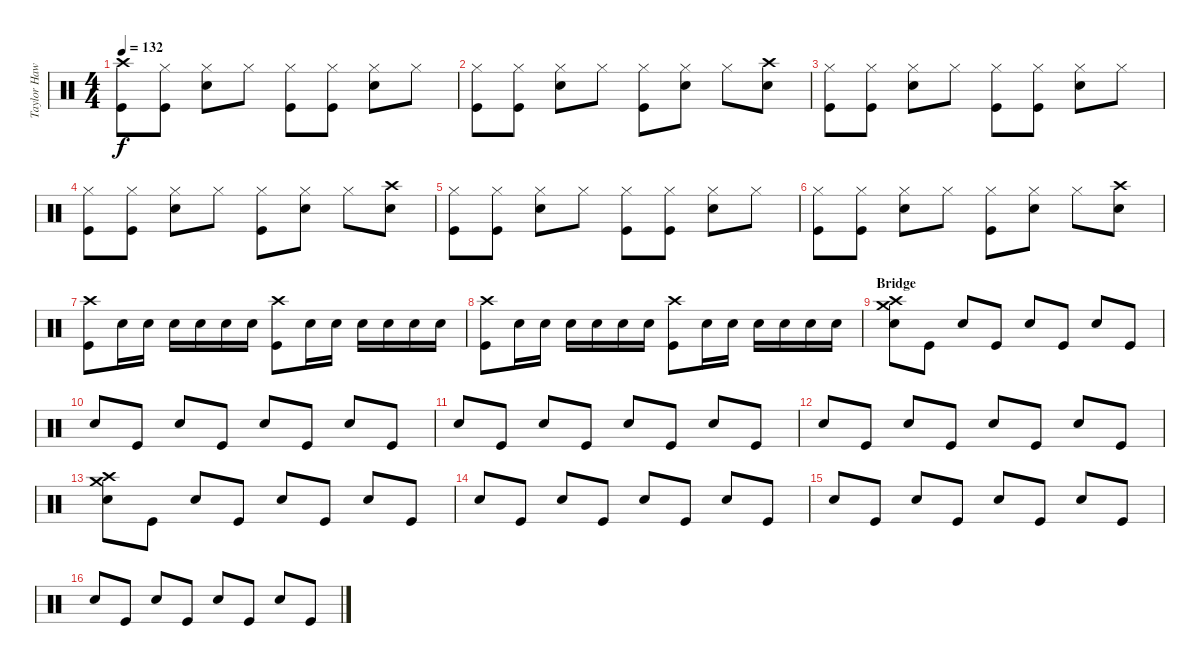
\track ("Taylor Hawkins (Drums)" "Taylor Haw") {instrument percussion}
\staff {score}
\articulation defaults
\ts (4 4)
\tempo 132
\clef neutral
\ks c
("Crash high (hit)" "Kick (hit)").8{dy f} ("Hi-Hat (closed)" "Kick (hit)").8 ("Hi-Hat (closed)" "Snare (hit) 2").8 "Hi-Hat (closed)".8 ("Hi-Hat (closed)" "Kick (hit)").8 ("Hi-Hat (closed)" "Kick (hit)").8 ("Hi-Hat (closed)" "Snare (hit) 2").8 "Hi-Hat (closed)".8 |
("Hi-Hat (closed)" "Kick (hit)").8 ("Hi-Hat (closed)" "Kick (hit)").8 ("Hi-Hat (closed)" "Snare (hit) 2").8 "Hi-Hat (closed)".8 ("Hi-Hat (closed)" "Kick (hit)").8 ("Hi-Hat (closed)" "Snare (hit) 2").8 "Hi-Hat (closed)".8 ("Crash high (hit)" "Snare (hit) 2").8 |
("Kick (hit)" "Hi-Hat (closed)").8 ("Hi-Hat (closed)" "Kick (hit)").8 ("Hi-Hat (closed)" "Snare (hit) 2").8 "Hi-Hat (closed)".8 ("Hi-Hat (closed)" "Kick (hit)").8 ("Hi-Hat (closed)" "Kick (hit)").8 ("Hi-Hat (closed)" "Snare (hit) 2").8 "Hi-Hat (closed)".8 |
("Hi-Hat (closed)" "Kick (hit)").8 ("Hi-Hat (closed)" "Kick (hit)").8 ("Hi-Hat (closed)" "Snare (hit) 2").8 "Hi-Hat (closed)".8 ("Hi-Hat (closed)" "Kick (hit)").8 ("Hi-Hat (closed)" "Snare (hit) 2").8 "Hi-Hat (closed)".8 ("Crash high (hit)" "Snare (hit) 2").8 |
("Kick (hit)" "Hi-Hat (closed)").8 ("Hi-Hat (closed)" "Kick (hit)").8 ("Hi-Hat (closed)" "Snare (hit) 2").8 "Hi-Hat (closed)".8 ("Hi-Hat (closed)" "Kick (hit)").8 ("Hi-Hat (closed)" "Kick (hit)").8 ("Hi-Hat (closed)" "Snare (hit) 2").8 "Hi-Hat (closed)".8 |
("Hi-Hat (closed)" "Kick (hit)").8 ("Hi-Hat (closed)" "Kick (hit)").8 ("Hi-Hat (closed)" "Snare (hit) 2").8 "Hi-Hat (closed)".8 ("Hi-Hat (closed)" "Kick (hit)").8 ("Hi-Hat (closed)" "Snare (hit) 2").8 "Hi-Hat (closed)".8 ("Crash high (hit)" "Snare (hit) 2").8 |
("Crash high (hit)" "Kick (hit)").8 "Snare (hit) 2".16 "Snare (hit) 2".16 "Snare (hit) 2".16 "Snare (hit) 2".16 "Snare (hit) 2".16 "Snare (hit) 2".16 ("Crash high (hit)" "Kick (hit)").8 "Snare (hit) 2".16 "Snare (hit) 2".16 "Snare (hit) 2".16 "Snare (hit) 2".16 "Snare (hit) 2".16 "Snare (hit) 2".16 |
("Crash high (hit)" "Kick (hit)").8 "Snare (hit) 2".16 "Snare (hit) 2".16 "Snare (hit) 2".16 "Snare (hit) 2".16 "Snare (hit) 2".16 "Snare (hit) 2".16 ("Crash high (hit)" "Kick (hit)").8 "Snare (hit) 2".16 "Snare (hit) 2".16 "Snare (hit) 2".16 "Snare (hit) 2".16 "Snare (hit) 2".16 "Snare (hit) 2".16 |
\section ("" "Bridge")
("Crash high (hit)" "Crash medium (hit)" "Snare (hit) 2").8 "Kick (hit)".8 "Snare (hit) 2".8 "Kick (hit)".8 "Snare (hit) 2".8 "Kick (hit)".8 "Snare (hit) 2".8 "Kick (hit)".8 |
"Snare (hit) 2".8 "Kick (hit)".8 "Snare (hit) 2".8 "Kick (hit)".8 "Snare (hit) 2".8 "Kick (hit)".8 "Snare (hit) 2".8 "Kick (hit)".8 |
"Snare (hit) 2".8 "Kick (hit)".8 "Snare (hit) 2".8 "Kick (hit)".8 "Snare (hit) 2".8 "Kick (hit)".8 "Snare (hit) 2".8 "Kick (hit)".8 |
"Snare (hit) 2".8 "Kick (hit)".8 "Snare (hit) 2".8 "Kick (hit)".8 "Snare (hit) 2".8 "Kick (hit)".8 "Snare (hit) 2".8 "Kick (hit)".8 |
("Crash high (hit)" "Crash medium (hit)" "Snare (hit) 2").8 "Kick (hit)".8 "Snare (hit) 2".8 "Kick (hit)".8 "Snare (hit) 2".8 "Kick (hit)".8 "Snare (hit) 2".8 "Kick (hit)".8 |
"Snare (hit) 2".8 "Kick (hit)".8 "Snare (hit) 2".8 "Kick (hit)".8 "Snare (hit) 2".8 "Kick (hit)".8 "Snare (hit) 2".8 "Kick (hit)".8 |
"Snare (hit) 2".8 "Kick (hit)".8 "Snare (hit) 2".8 "Kick (hit)".8 "Snare (hit) 2".8 "Kick (hit)".8 "Snare (hit) 2".8 "Kick (hit)".8 |
"Snare (hit) 2".8 "Kick (hit)".8 "Snare (hit) 2".8 "Kick (hit)".8 "Snare (hit) 2".8 "Kick (hit)".8 "Snare (hit) 2".8 "Kick (hit)".8
